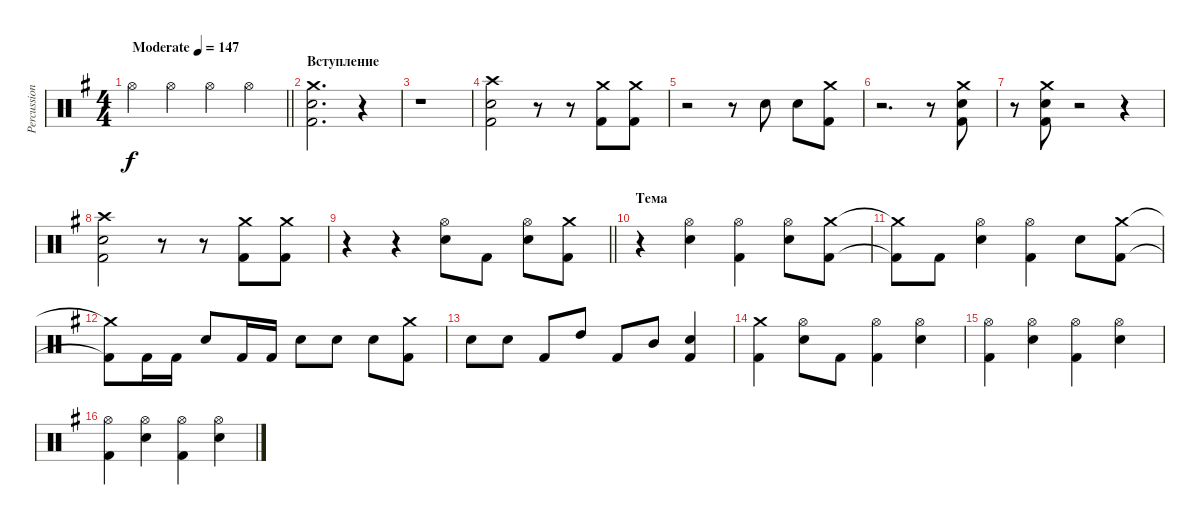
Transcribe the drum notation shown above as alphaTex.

\track ("Percussion" "Percussion") {instrument percussion}
\staff {score}
\articulation defaults
\ts (4 4)
\tempo (147 "Moderate")
\clef neutral
\barLineRight lightlight
\ks eminor "Hi-Hat (open)".4{dy f} "Hi-Hat (open)".4 "Hi-Hat (open)".4 "Hi-Hat (open)".4
|
\section ("" "Вступление")
("Crash medium (hit)" "Electric Snare (hit)" "Kick (hit) 2").2{d} r.4 |
r.1 |
("Crash high (hit)" "Electric Snare (hit)" "Kick (hit) 2").2 r.8 r.8 ("Crash medium (hit)" "Kick (hit) 2").8 ("Crash medium (hit)" "Kick (hit) 2").8 |
r.2 r.8 "Snare (hit) 2".8 "Snare (hit) 2".8 ("Crash medium (hit)" "Kick (hit) 2").8 |
r.2{d} r.8 ("Crash medium (hit)" "Electric Snare (hit)" "Kick (hit) 2").8 |
r.8 ("Crash medium (hit)" "Electric Snare (hit)" "Kick (hit) 2").8 r.2 r.4 |
("Crash high (hit)" "Electric Snare (hit)" "Kick (hit) 2").2 r.8 r.8 ("Crash medium (hit)" "Kick (hit) 2").8 ("Crash medium (hit)" "Kick (hit) 2").8 |
\barLineRight lightlight
r.4 r.4 ("Hi-Hat (open)" "Snare (hit) 2").8 "Kick (hit) 2".8 ("Hi-Hat (open)" "Snare (hit) 2").8 ("Crash medium (hit)" "Kick (hit) 2").8 |
\section ("" "Тема")
r.4 ("Hi-Hat (open)" "Snare (hit) 2").4 ("Hi-Hat (open)" "Kick (hit) 2").4 ("Hi-Hat (open)" "Snare (hit) 2").8 ("Crash medium (hit)" "Kick (hit) 2").8 |
("Crash medium (hit)"{t} "Kick (hit) 2"{t}).8 "Kick (hit) 2".8 ("Hi-Hat (open)" "Snare (hit) 2").4 ("Hi-Hat (open)" "Kick (hit) 2").4 "Snare (hit) 2".8 ("Crash medium (hit)" "Kick (hit) 2").8 |
("Crash medium (hit)"{t} "Kick (hit) 2"{t}).8 "Kick (hit) 2".16 "Kick (hit) 2".16 "Snare (hit) 2".8 "Kick (hit) 2".16 "Kick (hit) 2".16 "Snare (hit) 2".8 "Snare (hit) 2".8 "Snare (hit) 2".8 ("Crash medium (hit)" "Kick (hit) 2").8 |
"Snare (hit) 2".8 "Snare (hit) 2".8 "Kick (hit) 2".8 "High Tom (hit)".8 "Kick (hit) 2".8 "Mid Tom (hit)".8 ("Snare (hit) 2" "Kick (hit) 2").4 |
("Crash medium (hit)" "Kick (hit) 2").4 ("Hi-Hat (open)" "Snare (hit) 2").8 "Kick (hit) 2".8 ("Hi-Hat (open)" "Kick (hit) 2").4 ("Hi-Hat (open)" "Snare (hit) 2").4 |
("Hi-Hat (open)" "Kick (hit) 2").4 ("Hi-Hat (open)" "Snare (hit) 2").4 ("Hi-Hat (open)" "Kick (hit) 2").4 ("Hi-Hat (open)" "Snare (hit) 2").4 |
("Hi-Hat (open)" "Kick (hit) 2").4 ("Hi-Hat (open)" "Snare (hit) 2").4 ("Hi-Hat (open)" "Kick (hit) 2").4 ("Hi-Hat (open)" "Snare (hit) 2").4
